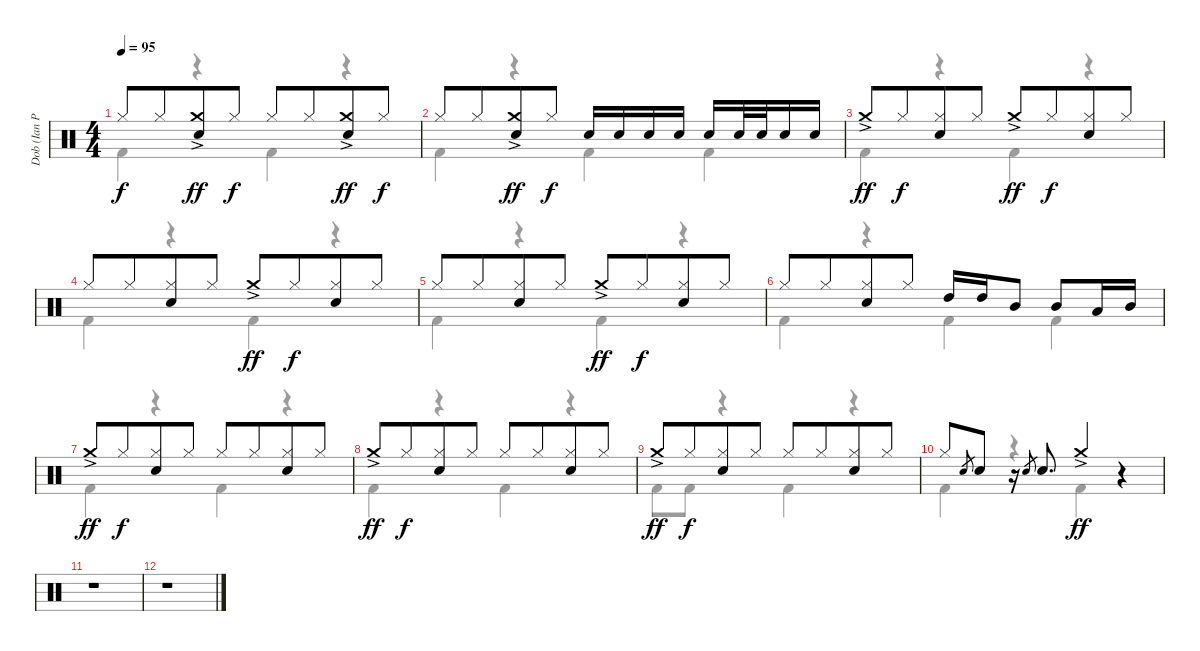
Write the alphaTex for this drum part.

\track ("Dob (Ian Paice)" "Dob (Ian P") {instrument percussion}
\staff {score}
\articulation defaults
\voice
\ts (4 4)
\tempo 95
\clef neutral
\ks c "Hi-Hat (closed)".8{dy f} "Hi-Hat (closed)".8{beam merge}
("Crash medium (hit)"{ac} "Electric Snare (hit)").8{dy ff} "Hi-Hat (closed)".8{dy f} "Hi-Hat (closed)".8 "Hi-Hat (closed)".8{beam merge} ("Crash medium (hit)"{ac} "Electric Snare (hit)").8{dy ff} "Hi-Hat (closed)".8{dy f} |
"Hi-Hat (closed)".8 "Hi-Hat (closed)".8{beam merge} ("Crash medium (hit)"{ac} "Electric Snare (hit)").8{dy ff} "Hi-Hat (closed)".8{dy f} "Electric Snare (hit)".16 "Electric Snare (hit)".16 "Electric Snare (hit)".16 "Electric Snare (hit)".16 "Electric Snare (hit)".16 "Electric Snare (hit)".32 "Electric Snare (hit)".32 "Electric Snare (hit)".16 "Electric Snare (hit)".16 |
"Crash medium (hit)"{ac}.8{dy ff} "Hi-Hat (closed)".8{dy f beam merge} ("Hi-Hat (closed)" "Electric Snare (hit)").8 "Hi-Hat (closed)".8 "Crash medium (hit)"{ac}.8{dy ff} "Hi-Hat (closed)".8{dy f beam merge} ("Hi-Hat (closed)" "Electric Snare (hit)").8 "Hi-Hat (closed)".8 |
"Hi-Hat (closed)".8 "Hi-Hat (closed)".8{beam merge} ("Hi-Hat (closed)" "Electric Snare (hit)").8 "Hi-Hat (closed)".8 "Crash medium (hit)"{ac}.8{dy ff} "Hi-Hat (closed)".8{dy f beam merge} ("Hi-Hat (closed)" "Electric Snare (hit)").8 "Hi-Hat (closed)".8 |
"Hi-Hat (closed)".8 "Hi-Hat (closed)".8{beam merge} ("Hi-Hat (closed)" "Electric Snare (hit)").8 "Hi-Hat (closed)".8 "Crash medium (hit)"{ac}.8{dy ff} "Hi-Hat (closed)".8{dy f beam merge} ("Hi-Hat (closed)" "Electric Snare (hit)").8 "Hi-Hat (closed)".8 |
"Hi-Hat (closed)".8 "Hi-Hat (closed)".8{beam merge} ("Hi-Hat (closed)" "Electric Snare (hit)").8 "Hi-Hat (closed)".8 "High Tom (hit)".16 "High Tom (hit)".16 "Mid Tom (hit)".8 "Mid Tom (hit)".8 "Low Tom (hit)".16 "Mid Tom (hit)".16 |
"Crash medium (hit)"{ac}.8{dy ff} "Hi-Hat (closed)".8{dy f beam merge} ("Hi-Hat (closed)" "Electric Snare (hit)").8 "Hi-Hat (closed)".8 "Hi-Hat (closed)".8 "Hi-Hat (closed)".8{beam merge} ("Hi-Hat (closed)" "Electric Snare (hit)").8 "Hi-Hat (closed)".8 |
"Crash medium (hit)"{ac}.8{dy ff} "Hi-Hat (closed)".8{dy f beam merge} ("Hi-Hat (closed)" "Electric Snare (hit)").8 "Hi-Hat (closed)".8 "Hi-Hat (closed)".8 "Hi-Hat (closed)".8{beam merge} ("Hi-Hat (closed)" "Electric Snare (hit)").8 "Hi-Hat (closed)".8 |
"Crash medium (hit)"{ac}.8{dy ff} "Hi-Hat (closed)".8{dy f beam merge} ("Hi-Hat (closed)" "Electric Snare (hit)").8 "Hi-Hat (closed)".8 "Hi-Hat (closed)".8 "Hi-Hat (closed)".8{beam merge} ("Hi-Hat (closed)" "Electric Snare (hit)").8 "Hi-Hat (closed)".8 |
"Hi-Hat (closed)".8 "Electric Snare (hit)".8{gr} "Electric Snare (hit)".8 r.16 "Electric Snare (hit)".8{gr} "Electric Snare (hit)".8{d} "Crash medium (hit)"{ac}.4{dy ff} r.4 |
r.1 |
r.1 |
\voice
\clef neutral
\ottava regular
\simile none
\ks c "Kick (hit) 2".4{dy f}
r.4 "Kick (hit) 2".4 r.4 |
"Kick (hit) 2".4 r.4 "Kick (hit) 2".4 "Kick (hit) 2".4 |
"Kick (hit) 2".4 r.4 "Kick (hit) 2".4 r.4 |
"Kick (hit) 2".4 r.4 "Kick (hit) 2".4 r.4 |
"Kick (hit) 2".4 r.4 "Kick (hit) 2".4 r.4 |
"Kick (hit) 2".4 r.4 "Kick (hit) 2".4 "Kick (hit) 2".4 |
"Kick (hit) 2".4 r.4 "Kick (hit) 2".4 r.4 |
"Kick (hit) 2".4 r.4 "Kick (hit) 2".4 r.4 |
"Kick (hit) 2".8 "Kick (hit) 2".8 r.4 "Kick (hit) 2".4 r.4 |
"Kick (hit) 2".4 r.4 "Kick (hit) 2".4 r.4 |
|
|
